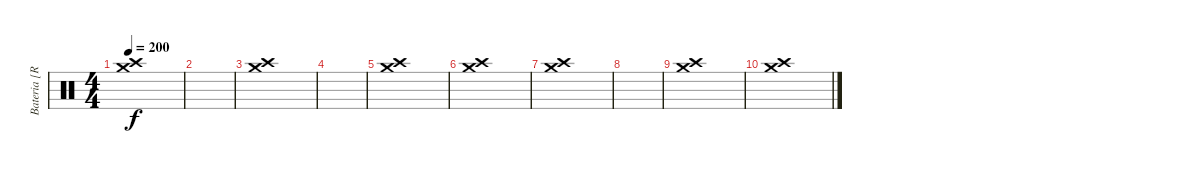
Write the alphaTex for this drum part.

\track ("Bateria [Ricardo Confessori]" "Bateria [R") {instrument percussion}
\staff {score}
\articulation defaults
\ts (4 4)
\tempo 200
\clef neutral
\ks c
("Crash medium (hit)" "Crash high (hit)").1{dy f} |
|
("Crash medium (hit)" "Crash high (hit)").1 |
|
("Crash medium (hit)" "Crash high (hit)").1 |
("Crash medium (hit)" "Crash high (hit)").1 |
("Crash medium (hit)" "Crash high (hit)").1 |
|
("Crash medium (hit)" "Crash high (hit)").1 |
("Crash medium (hit)" "Crash high (hit)").1
